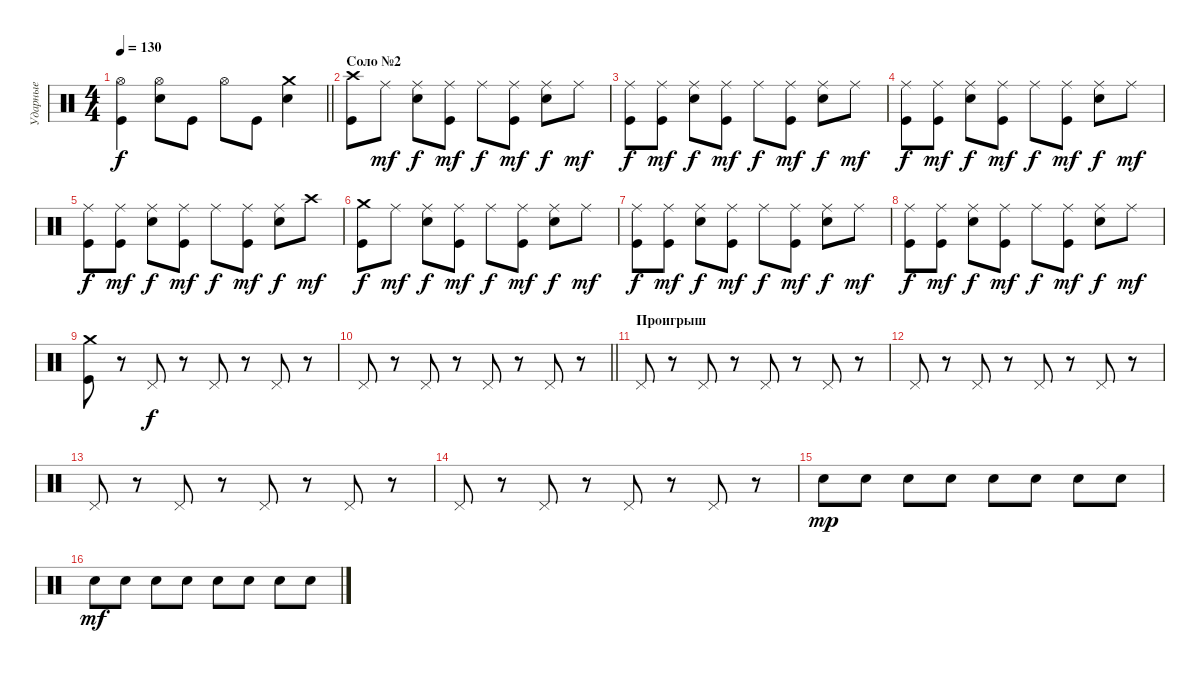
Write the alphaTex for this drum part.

\track ("Ударные" "Ударные") {instrument percussion}
\staff {score}
\articulation defaults
\ts (4 4)
\tempo 130
\clef neutral
\barLineRight lightlight
\ks c
("Hi-Hat (open)" "Kick (hit)").4{dy f} ("Hi-Hat (open)" "Electric Snare (hit)").8 "Kick (hit)".8 "Hi-Hat (open)".8 "Kick (hit)".8 ("Crash medium (hit)" "Electric Snare (hit)").4 |
\section ("" "Соло №2")
("Crash high (hit)" "Kick (hit)").8 "Ride (middle)".8{dy mf} ("Ride (middle)" "Electric Snare (hit)").8{dy f} ("Ride (middle)" "Kick (hit)").8{dy mf} "Ride (middle)".8{dy f} ("Ride (middle)" "Kick (hit)").8{dy mf} ("Ride (middle)" "Electric Snare (hit)").8{dy f} "Ride (middle)".8{dy mf} |
("Ride (middle)" "Kick (hit)").8{dy f} ("Ride (middle)" "Kick (hit)").8{dy mf} ("Ride (middle)" "Electric Snare (hit)").8{dy f} ("Ride (middle)" "Kick (hit)").8{dy mf} "Ride (middle)".8{dy f} ("Ride (middle)" "Kick (hit)").8{dy mf} ("Ride (middle)" "Electric Snare (hit)").8{dy f} "Ride (middle)".8{dy mf} |
("Ride (middle)" "Kick (hit)").8{dy f} ("Ride (middle)" "Kick (hit)").8{dy mf} ("Ride (middle)" "Electric Snare (hit)").8{dy f} ("Ride (middle)" "Kick (hit)").8{dy mf} "Ride (middle)".8{dy f} ("Ride (middle)" "Kick (hit)").8{dy mf} ("Ride (middle)" "Electric Snare (hit)").8{dy f} "Ride (middle)".8{dy mf} |
("Ride (middle)" "Kick (hit)").8{dy f} ("Ride (middle)" "Kick (hit)").8{dy mf} ("Ride (middle)" "Electric Snare (hit)").8{dy f} ("Ride (middle)" "Kick (hit)").8{dy mf} "Ride (middle)".8{dy f} ("Ride (middle)" "Kick (hit)").8{dy mf} ("Ride (middle)" "Electric Snare (hit)").8{dy f} "Crash high (hit)".8{dy mf} |
("Crash medium (hit)" "Kick (hit)").8{dy f} "Ride (middle)".8{dy mf} ("Ride (middle)" "Electric Snare (hit)").8{dy f} ("Ride (middle)" "Kick (hit)").8{dy mf} "Ride (middle)".8{dy f} ("Ride (middle)" "Kick (hit)").8{dy mf} ("Ride (middle)" "Electric Snare (hit)").8{dy f} "Ride (middle)".8{dy mf} |
("Ride (middle)" "Kick (hit)").8{dy f} ("Ride (middle)" "Kick (hit)").8{dy mf} ("Ride (middle)" "Electric Snare (hit)").8{dy f} ("Ride (middle)" "Kick (hit)").8{dy mf} "Ride (middle)".8{dy f} ("Ride (middle)" "Kick (hit)").8{dy mf} ("Ride (middle)" "Electric Snare (hit)").8{dy f} "Ride (middle)".8{dy mf} |
("Ride (middle)" "Kick (hit)").8{dy f} ("Ride (middle)" "Kick (hit)").8{dy mf} ("Ride (middle)" "Electric Snare (hit)").8{dy f} ("Ride (middle)" "Kick (hit)").8{dy mf} "Ride (middle)".8{dy f} ("Ride (middle)" "Kick (hit)").8{dy mf} ("Ride (middle)" "Electric Snare (hit)").8{dy f} "Ride (middle)".8{dy mf} |
("Crash medium (hit)" "Kick (hit)").8 r.8 "Pedal Hi-Hat (hit)".8{dy f} r.8 "Pedal Hi-Hat (hit)".8 r.8 "Pedal Hi-Hat (hit)".8 r.8 |
\barLineRight lightlight "Pedal Hi-Hat (hit)".8
r.8 "Pedal Hi-Hat (hit)".8 r.8 "Pedal Hi-Hat (hit)".8 r.8 "Pedal Hi-Hat (hit)".8 r.8 |
\section ("" "Проигрыш")
"Pedal Hi-Hat (hit)".8 r.8 "Pedal Hi-Hat (hit)".8 r.8 "Pedal Hi-Hat (hit)".8 r.8 "Pedal Hi-Hat (hit)".8 r.8 |
"Pedal Hi-Hat (hit)".8 r.8 "Pedal Hi-Hat (hit)".8 r.8 "Pedal Hi-Hat (hit)".8 r.8 "Pedal Hi-Hat (hit)".8 r.8 |
"Pedal Hi-Hat (hit)".8 r.8 "Pedal Hi-Hat (hit)".8 r.8 "Pedal Hi-Hat (hit)".8 r.8 "Pedal Hi-Hat (hit)".8 r.8 |
"Pedal Hi-Hat (hit)".8 r.8 "Pedal Hi-Hat (hit)".8 r.8 "Pedal Hi-Hat (hit)".8 r.8 "Pedal Hi-Hat (hit)".8 r.8 |
"Electric Snare (hit)".8{dy mp} "Electric Snare (hit)".8 "Electric Snare (hit)".8 "Electric Snare (hit)".8 "Electric Snare (hit)".8 "Electric Snare (hit)".8 "Electric Snare (hit)".8 "Electric Snare (hit)".8 |
"Electric Snare (hit)".8{dy mf} "Electric Snare (hit)".8 "Electric Snare (hit)".8 "Electric Snare (hit)".8 "Electric Snare (hit)".8 "Electric Snare (hit)".8 "Electric Snare (hit)".8 "Electric Snare (hit)".8
